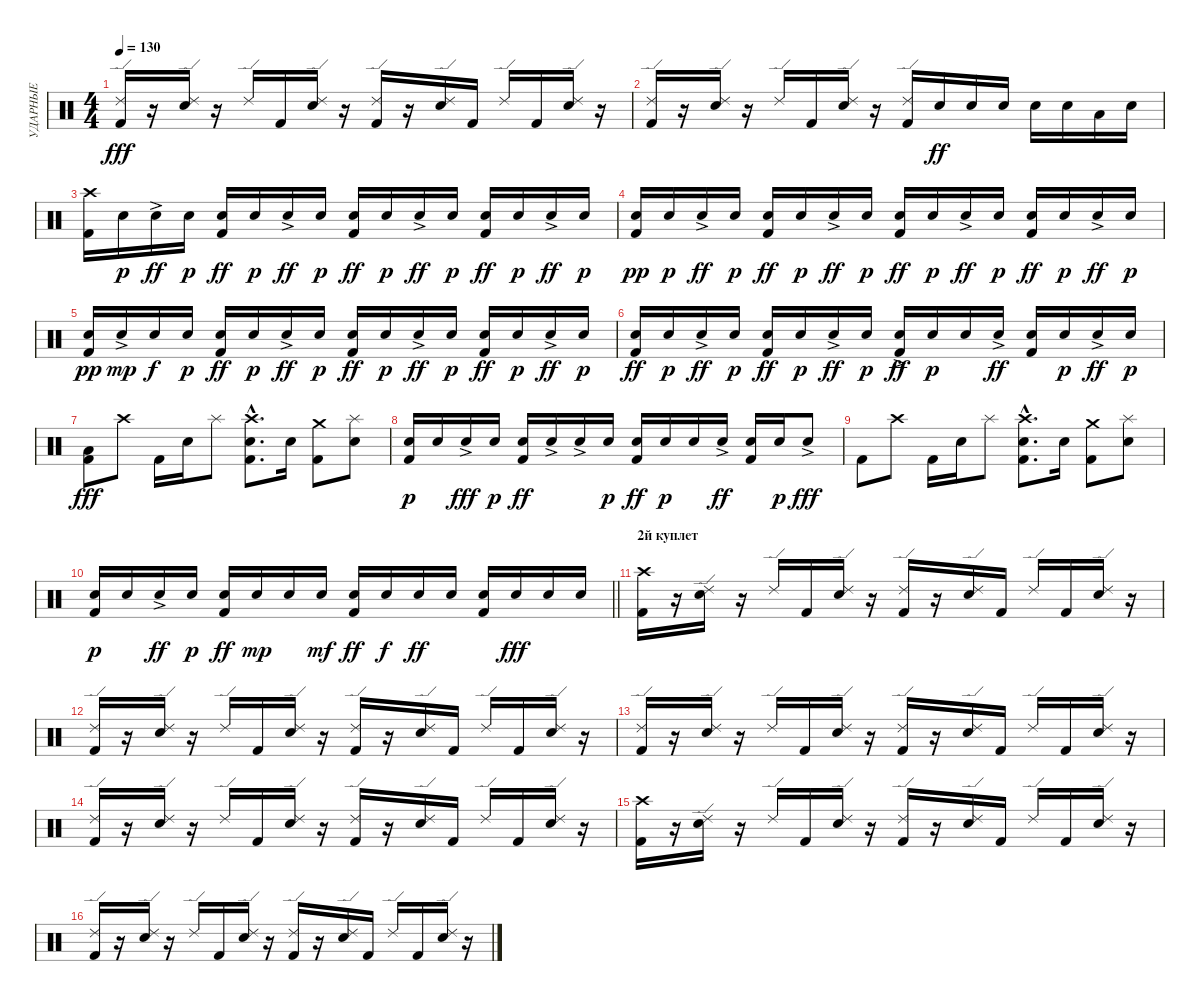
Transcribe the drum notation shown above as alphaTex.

\track ("УДАРНЫЕ" "УДАРНЫЕ") {instrument percussion}
\staff {score}
\articulation defaults
\ts (4 4)
\tempo 130
\clef neutral
\ks c
("Ride (edge) 2" "Kick (hit) 2").16{dy fff} r.16 ("Snare (hit) 2" "Ride (edge) 2").16 r.16 "Ride (edge) 2".16 "Kick (hit) 2".16 ("Snare (hit) 2" "Ride (edge) 2").16 r.16 ("Kick (hit) 2" "Ride (edge) 2").16 r.16 ("Snare (hit) 2" "Ride (edge) 2").16 "Kick (hit) 2".16 "Ride (edge) 2".16 "Kick (hit) 2".16 ("Snare (hit) 2" "Ride (edge) 2").16 r.16 |
("Ride (edge) 2" "Kick (hit) 2").16 r.16 ("Snare (hit) 2" "Ride (edge) 2").16 r.16 "Ride (edge) 2".16 "Kick (hit) 2".16 ("Snare (hit) 2" "Ride (edge) 2").16 r.16 ("Kick (hit) 2" "Ride (edge) 2").16 "Snare (hit) 2".16{dy ff} "Snare (hit) 2".16 "Snare (hit) 2".16 "Snare (hit) 2".16 "Snare (hit) 2".16 "Low Tom (hit)".16 "Snare (hit) 2".16 |
("Kick (hit) 2" "Crash high (hit)").16 "Snare (hit) 2".16{dy p} "Snare (hit) 2"{ac}.16{dy ff} "Snare (hit) 2".16{dy p} ("Snare (hit) 2" "Kick (hit) 2").16{dy ff} "Snare (hit) 2".16{dy p} "Snare (hit) 2"{ac}.16{dy ff} "Snare (hit) 2".16{dy p} ("Snare (hit) 2" "Kick (hit) 2").16{dy ff} "Snare (hit) 2".16{dy p} "Snare (hit) 2"{ac}.16{dy ff} "Snare (hit) 2".16{dy p} ("Snare (hit) 2" "Kick (hit) 2").16{dy ff} "Snare (hit) 2".16{dy p} "Snare (hit) 2"{ac}.16{dy ff} "Snare (hit) 2".16{dy p} |
("Kick (hit) 2" "Snare (hit) 2").16{dy pp} "Snare (hit) 2".16{dy p} "Snare (hit) 2"{ac}.16{dy ff} "Snare (hit) 2".16{dy p} ("Snare (hit) 2" "Kick (hit) 2").16{dy ff} "Snare (hit) 2".16{dy p} "Snare (hit) 2"{ac}.16{dy ff} "Snare (hit) 2".16{dy p} ("Snare (hit) 2" "Kick (hit) 2").16{dy ff} "Snare (hit) 2".16{dy p} "Snare (hit) 2"{ac}.16{dy ff} "Snare (hit) 2".16{dy p} ("Snare (hit) 2" "Kick (hit) 2").16{dy ff} "Snare (hit) 2".16{dy p} "Snare (hit) 2"{ac}.16{dy ff} "Snare (hit) 2".16{dy p} |
("Kick (hit) 2" "Snare (hit) 2").16{dy pp} "Snare (hit) 2"{ac}.16{dy mp} "Snare (hit) 2".16{dy f} "Snare (hit) 2".16{dy p} ("Snare (hit) 2" "Kick (hit) 2").16{dy ff} "Snare (hit) 2".16{dy p} "Snare (hit) 2"{ac}.16{dy ff} "Snare (hit) 2".16{dy p} ("Snare (hit) 2" "Kick (hit) 2").16{dy ff} "Snare (hit) 2".16{dy p} "Snare (hit) 2"{ac}.16{dy ff} "Snare (hit) 2".16{dy p} ("Snare (hit) 2" "Kick (hit) 2").16{dy ff} "Snare (hit) 2".16{dy p} "Snare (hit) 2"{ac}.16{dy ff} "Snare (hit) 2".16{dy p} |
("Snare (hit) 2" "Kick (hit) 2").16{dy ff} "Snare (hit) 2".16{dy p} "Snare (hit) 2"{ac}.16{dy ff} "Snare (hit) 2".16{dy p} ("Snare (hit) 2" "Kick (hit) 2").16{dy ff} "Snare (hit) 2".16{dy p} "Snare (hit) 2"{ac}.16{dy ff} "Snare (hit) 2".16{dy p} ("Kick (hit) 2" "Snare (hit) 2"{ac}).16{dy ff} "Snare (hit) 2".16{dy p} "Snare (hit) 2".16 "Snare (hit) 2"{ac}.16{dy ff} ("Snare (hit) 2" "Kick (hit) 2").16 "Snare (hit) 2".16{dy p} "Snare (hit) 2"{ac}.16{dy ff} "Snare (hit) 2".16{dy p} |
("Low Floor Tom (hit)" "Kick (hit) 2").8{dy fff} "Crash high (hit)".8 "Kick (hit) 2".16 "Snare (hit) 2".16 "Splash (hit)".8 ("Snare (hit) 2"{hac} "Kick (hit) 2"{hac} "Crash high (hit)"{hac}).8{d} "Snare (hit) 2".16 ("Crash medium (hit)" "Kick (hit) 2").8 ("Snare (hit) 2" "Splash (hit)").8 |
("Kick (hit) 2" "Snare (hit) 2").16{dy p} "Snare (hit) 2".16 "Snare (hit) 2"{ac}.16{dy fff} "Snare (hit) 2".16{dy p} ("Snare (hit) 2" "Kick (hit) 2").16{dy ff} "Snare (hit) 2"{ac}.16 "Snare (hit) 2"{ac}.16 "Snare (hit) 2".16{dy p} ("Snare (hit) 2" "Kick (hit) 2").16{dy ff} "Snare (hit) 2".16{dy p} "Snare (hit) 2".16 "Snare (hit) 2"{ac}.16{dy ff} ("Snare (hit) 2" "Kick (hit) 2").16 "Snare (hit) 2".16{dy p} "Snare (hit) 2"{ac}.8{dy fff} |
"Kick (hit) 2".8 "Crash high (hit)".8 "Kick (hit) 2".16 "Snare (hit) 2".16 "Splash (hit)".8 ("Snare (hit) 2"{hac} "Kick (hit) 2"{hac} "Crash high (hit)"{hac}).8{d} "Snare (hit) 2".16 ("Crash medium (hit)" "Kick (hit) 2").8 ("Snare (hit) 2" "Splash (hit)").8 |
\barLineRight lightlight
("Kick (hit) 2" "Snare (hit) 2").16{dy p} "Snare (hit) 2".16 "Snare (hit) 2"{ac}.16{dy ff} "Snare (hit) 2".16{dy p} ("Snare (hit) 2" "Kick (hit) 2").16{dy ff} "Snare (hit) 2".16{dy mp} "Snare (hit) 2".16 "Snare (hit) 2".16{dy mf} ("Snare (hit) 2" "Kick (hit) 2").16{dy ff} "Snare (hit) 2".16{dy f} "Snare (hit) 2".16{dy ff} "Snare (hit) 2".16 ("Snare (hit) 2" "Kick (hit) 2").16 "Snare (hit) 2".16{dy fff} "Snare (hit) 2".16 "Snare (hit) 2".16 |
\section ("" "2й куплет")
("Crash high (hit)" "Kick (hit) 2").16 r.16 ("Snare (hit) 2" "Ride (edge) 2").16 r.16 "Ride (edge) 2".16 "Kick (hit) 2".16 ("Snare (hit) 2" "Ride (edge) 2").16 r.16 ("Kick (hit) 2" "Ride (edge) 2").16 r.16 ("Snare (hit) 2" "Ride (edge) 2").16 "Kick (hit) 2".16 "Ride (edge) 2".16 "Kick (hit) 2".16 ("Snare (hit) 2" "Ride (edge) 2").16 r.16 |
("Ride (edge) 2" "Kick (hit) 2").16 r.16 ("Snare (hit) 2" "Ride (edge) 2").16 r.16 "Ride (edge) 2".16 "Kick (hit) 2".16 ("Snare (hit) 2" "Ride (edge) 2").16 r.16 ("Kick (hit) 2" "Ride (edge) 2").16 r.16 ("Snare (hit) 2" "Ride (edge) 2").16 "Kick (hit) 2".16 "Ride (edge) 2".16 "Kick (hit) 2".16 ("Snare (hit) 2" "Ride (edge) 2").16 r.16 |
("Ride (edge) 2" "Kick (hit) 2").16 r.16 ("Snare (hit) 2" "Ride (edge) 2").16 r.16 "Ride (edge) 2".16 "Kick (hit) 2".16 ("Snare (hit) 2" "Ride (edge) 2").16 r.16 ("Kick (hit) 2" "Ride (edge) 2").16 r.16 ("Snare (hit) 2" "Ride (edge) 2").16 "Kick (hit) 2".16 "Ride (edge) 2".16 "Kick (hit) 2".16 ("Snare (hit) 2" "Ride (edge) 2").16 r.16 |
("Ride (edge) 2" "Kick (hit) 2").16 r.16 ("Snare (hit) 2" "Ride (edge) 2").16 r.16 "Ride (edge) 2".16 "Kick (hit) 2".16 ("Snare (hit) 2" "Ride (edge) 2").16 r.16 ("Kick (hit) 2" "Ride (edge) 2").16 r.16 ("Snare (hit) 2" "Ride (edge) 2").16 "Kick (hit) 2".16 "Ride (edge) 2".16 "Kick (hit) 2".16 ("Snare (hit) 2" "Ride (edge) 2").16 r.16 |
("Crash high (hit)" "Kick (hit) 2").16 r.16 ("Snare (hit) 2" "Ride (edge) 2").16 r.16 "Ride (edge) 2".16 "Kick (hit) 2".16 ("Snare (hit) 2" "Ride (edge) 2").16 r.16 ("Kick (hit) 2" "Ride (edge) 2").16 r.16 ("Snare (hit) 2" "Ride (edge) 2").16 "Kick (hit) 2".16 "Ride (edge) 2".16 "Kick (hit) 2".16 ("Snare (hit) 2" "Ride (edge) 2").16 r.16 |
("Ride (edge) 2" "Kick (hit) 2").16 r.16 ("Snare (hit) 2" "Ride (edge) 2").16 r.16 "Ride (edge) 2".16 "Kick (hit) 2".16 ("Snare (hit) 2" "Ride (edge) 2").16 r.16 ("Kick (hit) 2" "Ride (edge) 2").16 r.16 ("Snare (hit) 2" "Ride (edge) 2").16 "Kick (hit) 2".16 "Ride (edge) 2".16 "Kick (hit) 2".16 ("Snare (hit) 2" "Ride (edge) 2").16 r.16
